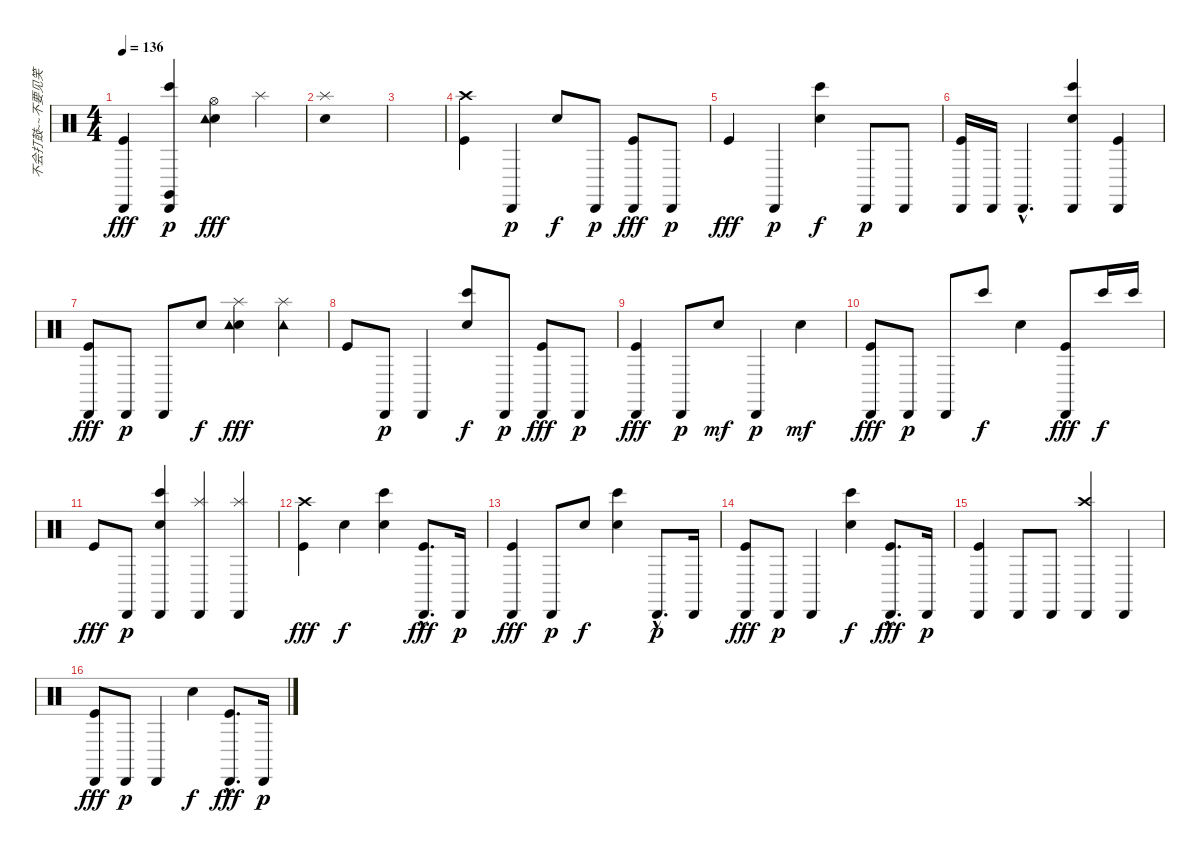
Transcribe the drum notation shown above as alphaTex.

\track ("不会打鼓~~不要见笑" "不会打鼓~~不要见笑") {instrument percussion}
\staff {score}
\articulation defaults
\ts (4 4)
\tempo 136
\clef neutral
\ks c
("Cabasa (hit)" "Kick (hit)").4{dy fff} ("Bongo High (hit)" "Claves (hit)" "Cabasa (hit)").4{dy p} ("Metronome (bell)" "Tambourine (hit)" "Hi-Hat (open)").4{dy fff} "Splash (hit)".4 |
("Metronome (bell)" "Splash (hit)").1 |
|
("Crash high (hit)" "Kick (hit)").4 "Cabasa (hit)".4{dy p} "Snare (hit) 2".8{dy f} "Cabasa (hit)".8{dy p} ("Cabasa (hit)" "Kick (hit)").8{dy fff} "Cabasa (hit)".8{dy p} |
"Kick (hit)".4{dy fff} "Cabasa (hit)".4{dy p} ("Bongo High (hit)" "Snare (hit) 2").4{dy f} "Cabasa (hit)".8{dy p} "Cabasa (hit)".8 |
("Cabasa (hit)" "Kick (hit)").16 "Cabasa (hit)".16 "Cabasa (hit)"{hac}.4{d} ("Bongo High (hit)" "Snare (hit) 2" "Cabasa (hit)").4 ("Cabasa (hit)" "Kick (hit)").4 |
("Cabasa (hit)" "Kick (hit)").8{dy fff} "Cabasa (hit)".8{dy p} "Cabasa (hit)".8 "Metronome (bell)".8{dy f} ("Metronome (bell)" "Tambourine (hit)" "Splash (hit)").4{dy fff} ("Tambourine (hit)" "Splash (hit)").4 |
"Kick (hit)".8 "Cabasa (hit)".8{dy p} "Cabasa (hit)".4 ("Bongo High (hit)" "Snare (hit) 2").8{dy f} "Cabasa (hit)".8{dy p} ("Cabasa (hit)" "Kick (hit)").8{dy fff} "Cabasa (hit)".8{dy p} |
("Cabasa (hit)" "Kick (hit)").4{dy fff} "Cabasa (hit)".8{dy p} "Metronome (bell)".8{dy mf} "Cabasa (hit)".4{dy p} "Metronome (bell)".4{dy mf} |
("Cabasa (hit)" "Kick (hit)").8{dy fff} "Cabasa (hit)".8{dy p} "Cabasa (hit)".8 "Bongo High (hit)".8{dy f} "Snare (hit) 2".4 ("Cabasa (hit)" "Kick (hit)").8{dy fff} "Bongo High (hit)".16{dy f} "Bongo High (hit)".16 |
"Kick (hit)".8{dy fff} "Cabasa (hit)".8{dy p} ("Bongo High (hit)" "Snare (hit) 2" "Cabasa (hit)").4 ("Splash (hit)" "Cabasa (hit)").4 ("Splash (hit)" "Cabasa (hit)").4 |
("Crash high (hit)" "Kick (hit)").4{dy fff} "Metronome (bell)".4{dy f} ("Bongo High (hit)" "Snare (hit) 2").4 ("Cabasa (hit)"{hac} "Kick (hit)"{hac}).8{d dy fff} "Cabasa (hit)".16{dy p} |
("Cabasa (hit)" "Kick (hit)").4{dy fff} "Cabasa (hit)".8{dy p} "Metronome (bell)".8{dy f} ("Bongo High (hit)" "Snare (hit) 2").4 "Cabasa (hit)"{hac}.8{d dy p} "Cabasa (hit)".16 |
("Cabasa (hit)" "Kick (hit)").8{dy fff} "Cabasa (hit)".8{dy p} "Cabasa (hit)".4 ("Bongo High (hit)" "Snare (hit) 2").4{dy f} ("Cabasa (hit)"{hac} "Kick (hit)"{hac}).8{d dy fff} "Cabasa (hit)".16{dy p} |
("Cabasa (hit)" "Kick (hit)").4 "Cabasa (hit)".8 "Cabasa (hit)".8 ("Crash high (hit)" "Cabasa (hit)").4 "Cabasa (hit)".4 |
("Cabasa (hit)" "Kick (hit)").8{dy fff} "Cabasa (hit)".8{dy p} "Cabasa (hit)".4 "Snare (hit) 2".4{dy f} ("Cabasa (hit)"{hac} "Kick (hit)"{hac}).8{d dy fff} "Cabasa (hit)".16{dy p}
